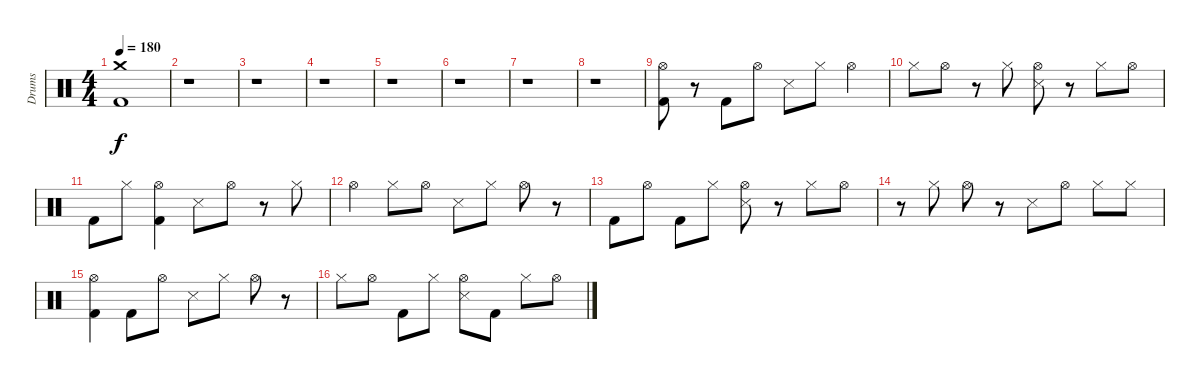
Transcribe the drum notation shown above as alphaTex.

\track ("Drums" "Drums") {instrument percussion}
\staff {score}
\articulation defaults
\ts (4 4)
\tempo 180
\clef neutral
\ks c
("Crash medium (hit)" "Kick (hit) 2").1{dy f} |
r.1 |
r.1 |
r.1 |
r.1 |
r.1 |
r.1 |
r.1 |
("Hi-Hat (open)" "Kick (hit) 2").8 r.8 "Kick (hit) 2".8 "Hi-Hat (open)".8 "Metronome (hit)".8 "Hi-Hat (closed)".8 "Hi-Hat (open)".4 |
"Hi-Hat (closed)".8 "Hi-Hat (open)".8 r.8 "Hi-Hat (closed)".8 ("Hi-Hat (open)" "Metronome (hit)").8 r.8 "Hi-Hat (closed)".8 "Hi-Hat (open)".8 |
"Kick (hit) 2".8 "Hi-Hat (closed)".8 ("Hi-Hat (open)" "Kick (hit) 2").4 "Metronome (hit)".8 "Hi-Hat (open)".8 r.8 "Hi-Hat (closed)".8 |
"Hi-Hat (open)".4 "Hi-Hat (closed)".8 "Hi-Hat (open)".8 "Metronome (hit)".8 "Hi-Hat (closed)".8 "Hi-Hat (open)".8 r.8 |
"Kick (hit) 2".8 "Hi-Hat (open)".8 "Kick (hit) 2".8 "Hi-Hat (closed)".8 ("Hi-Hat (open)" "Metronome (hit)").8 r.8 "Hi-Hat (closed)".8 "Hi-Hat (open)".8 |
r.8 "Hi-Hat (closed)".8 "Hi-Hat (open)".8 r.8 "Metronome (hit)".8 "Hi-Hat (open)".8 "Hi-Hat (closed)".8 "Hi-Hat (closed)".8 |
("Hi-Hat (open)" "Kick (hit) 2").4 "Kick (hit) 2".8 "Hi-Hat (open)".8 "Metronome (hit)".8 "Hi-Hat (closed)".8 "Hi-Hat (open)".8 r.8 |
"Hi-Hat (closed)".8 "Hi-Hat (open)".8 "Kick (hit) 2".8 "Hi-Hat (closed)".8 ("Hi-Hat (open)" "Metronome (hit)").8 "Kick (hit) 2".8 "Hi-Hat (closed)".8 "Hi-Hat (open)".8
